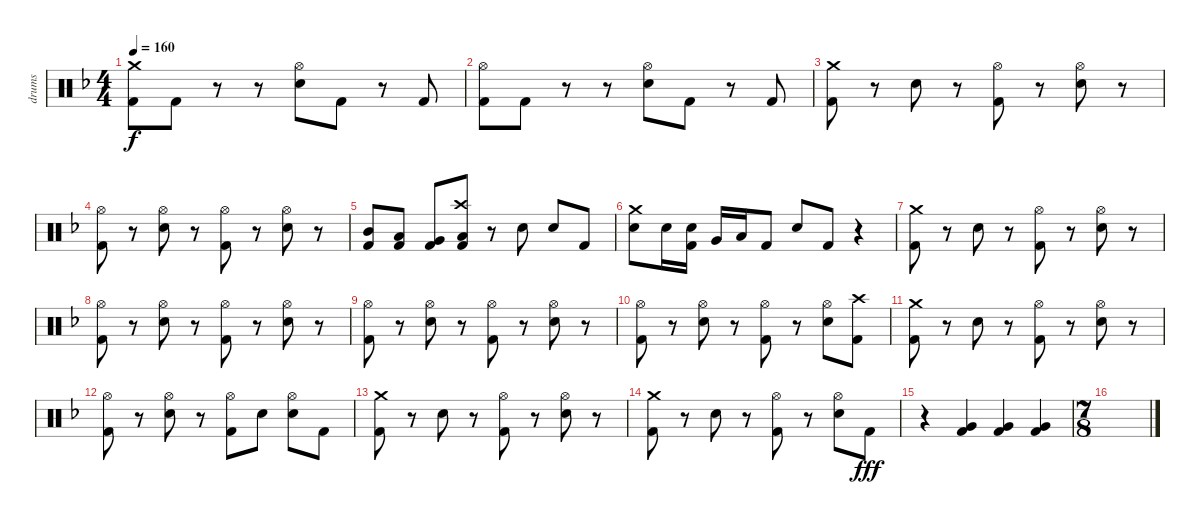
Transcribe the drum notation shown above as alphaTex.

\track ("drums" "drums") {instrument percussion}
\staff {score}
\articulation defaults
\ts (4 4)
\tempo 160
\clef neutral
\ks f
("Crash medium (hit)" "Kick (hit) 2").8{dy f} "Kick (hit) 2".8 r.8 r.8 ("Hi-Hat (open)" "Electric Snare (hit)").8 "Kick (hit) 2".8 r.8 "Kick (hit) 2".8 |
("Hi-Hat (open)" "Kick (hit) 2").8 "Kick (hit) 2".8 r.8 r.8 ("Hi-Hat (open)" "Electric Snare (hit)").8 "Kick (hit) 2".8 r.8 "Kick (hit) 2".8 |
("Crash medium (hit)" "Kick (hit) 2").8 r.8 "Electric Snare (hit)".8 r.8 ("Hi-Hat (open)" "Kick (hit) 2").8 r.8 ("Hi-Hat (open)" "Electric Snare (hit)").8 r.8 |
("Hi-Hat (open)" "Kick (hit) 2").8 r.8 ("Hi-Hat (open)" "Electric Snare (hit)").8 r.8 ("Hi-Hat (open)" "Kick (hit) 2").8 r.8 ("Hi-Hat (open)" "Electric Snare (hit)").8 r.8 |
("Mid Tom (hit)" "Kick (hit) 2").8 ("Low Tom (hit)" "Kick (hit) 2").8 ("Very Low Tom (hit)" "Kick (hit) 2").8 ("Crash high (hit)" "Low Floor Tom (hit)" "Kick (hit) 2").8 r.8 "Electric Snare (hit)".8 "Electric Snare (hit)".8 "Kick (hit) 2".8 |
("Crash medium (hit)" "Electric Snare (hit)").8 "Electric Snare (hit)".16 ("Electric Snare (hit)" "Kick (hit) 2").16 "Very Low Tom (hit)".16 "Low Floor Tom (hit)".16 "Kick (hit) 2".8 "Electric Snare (hit)".8 "Kick (hit) 2".8 r.4 |
("Crash medium (hit)" "Kick (hit) 2").8 r.8 "Electric Snare (hit)".8 r.8 ("Hi-Hat (open)" "Kick (hit) 2").8 r.8 ("Hi-Hat (open)" "Electric Snare (hit)").8 r.8 |
("Hi-Hat (open)" "Kick (hit) 2").8 r.8 ("Hi-Hat (open)" "Electric Snare (hit)").8 r.8 ("Hi-Hat (open)" "Kick (hit) 2").8 r.8 ("Hi-Hat (open)" "Electric Snare (hit)").8 r.8 |
("Hi-Hat (open)" "Kick (hit) 2").8 r.8 ("Hi-Hat (open)" "Electric Snare (hit)").8 r.8 ("Hi-Hat (open)" "Kick (hit) 2").8 r.8 ("Hi-Hat (open)" "Electric Snare (hit)").8 r.8 |
("Hi-Hat (open)" "Kick (hit) 2").8 r.8 ("Hi-Hat (open)" "Electric Snare (hit)").8 r.8 ("Hi-Hat (open)" "Kick (hit) 2").8 r.8 ("Hi-Hat (open)" "Electric Snare (hit)").8 ("Crash high (hit)" "Kick (hit) 2").8 |
("Crash medium (hit)" "Kick (hit) 2").8 r.8 "Electric Snare (hit)".8 r.8 ("Hi-Hat (open)" "Kick (hit) 2").8 r.8 ("Hi-Hat (open)" "Electric Snare (hit)").8 r.8 |
("Hi-Hat (open)" "Kick (hit) 2").8 r.8 ("Hi-Hat (open)" "Electric Snare (hit)").8 r.8 ("Hi-Hat (open)" "Kick (hit) 2").8 "Electric Snare (hit)".8 ("Hi-Hat (open)" "Electric Snare (hit)").8 "Kick (hit) 2".8 |
("Crash medium (hit)" "Kick (hit) 2").8 r.8 "Electric Snare (hit)".8 r.8 ("Hi-Hat (open)" "Kick (hit) 2").8 r.8 ("Hi-Hat (open)" "Electric Snare (hit)").8 r.8 |
("Crash medium (hit)" "Kick (hit) 2").8 r.8 "Electric Snare (hit)".8 r.8 ("Hi-Hat (open)" "Kick (hit) 2").8 r.8 ("Hi-Hat (open)" "Electric Snare (hit)").8 "Kick (hit) 2".8{dy fff} |
r.4 ("Very Low Tom (hit)" "Kick (hit) 2").4 ("Very Low Tom (hit)" "Kick (hit) 2").4 ("Very Low Tom (hit)" "Kick (hit) 2").4 |
\ts (7 8)
